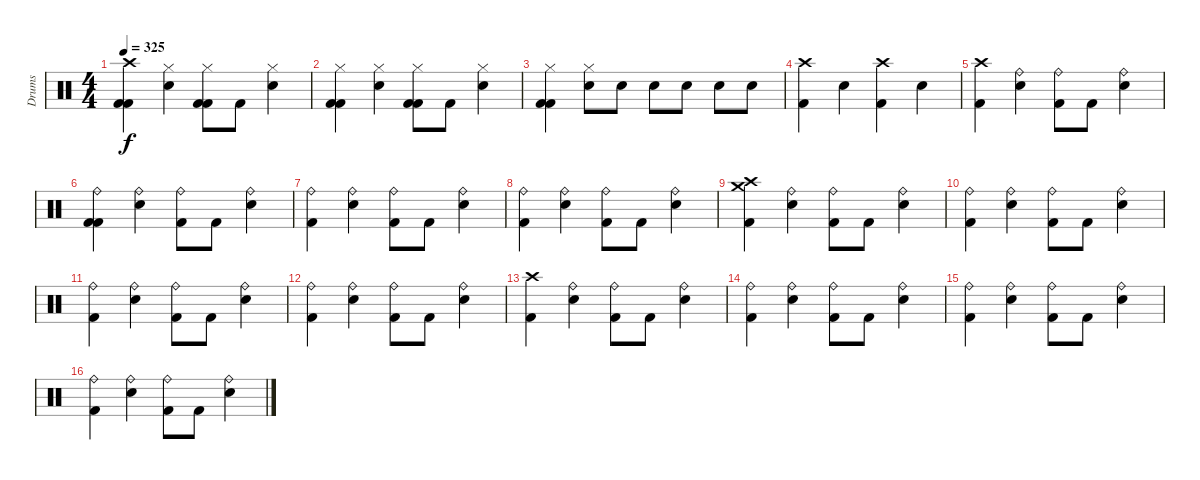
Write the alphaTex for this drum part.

\track ("Drums" "Drums") {instrument percussion}
\staff {score}
\articulation defaults
\ts (4 4)
\tempo 325
\clef neutral
\ks c
("Kick (hit) 2" "Kick (hit) 2" "Crash high (hit)").4{dy f} ("Electric Snare (hit)" "Hi-Hat (closed)").4 ("Kick (hit) 2" "Hi-Hat (closed)" "Kick (hit) 2").8 "Kick (hit) 2".8 ("Electric Snare (hit)" "Hi-Hat (closed)").4 |
("Hi-Hat (closed)" "Kick (hit) 2" "Kick (hit) 2").4 ("Electric Snare (hit)" "Hi-Hat (closed)").4 ("Kick (hit) 2" "Hi-Hat (closed)" "Kick (hit) 2").8 "Kick (hit) 2".8 ("Electric Snare (hit)" "Hi-Hat (closed)").4 |
("Hi-Hat (closed)" "Kick (hit) 2" "Kick (hit) 2").4 ("Hi-Hat (closed)" "Electric Snare (hit)").8 "Electric Snare (hit)".8 "Electric Snare (hit)".8 "Electric Snare (hit)".8 "Electric Snare (hit)".8 "Electric Snare (hit)".8 |
("Crash high (hit)" "Kick (hit) 2").4 "Electric Snare (hit)".4 ("Crash high (hit)" "Kick (hit) 2").4 "Electric Snare (hit)".4 |
("Crash high (hit)" "Kick (hit) 2").4 ("Electric Snare (hit)" "Ride (bell)").4 ("Kick (hit) 2" "Ride (bell)").8 "Kick (hit) 2".8 ("Electric Snare (hit)" "Ride (bell)").4 |
("Kick (hit) 2" "Kick (hit) 2" "Ride (bell)").4 ("Electric Snare (hit)" "Ride (bell)").4 ("Kick (hit) 2" "Ride (bell)").8 "Kick (hit) 2".8 ("Electric Snare (hit)" "Ride (bell)").4 |
("Kick (hit) 2" "Ride (bell)").4 ("Electric Snare (hit)" "Ride (bell)").4 ("Kick (hit) 2" "Ride (bell)").8 "Kick (hit) 2".8 ("Electric Snare (hit)" "Ride (bell)").4 |
("Kick (hit) 2" "Ride (bell)").4 ("Electric Snare (hit)" "Ride (bell)").4 ("Kick (hit) 2" "Ride (bell)").8 "Kick (hit) 2".8 ("Electric Snare (hit)" "Ride (bell)").4 |
("Crash high (hit)" "Crash medium (hit)" "Kick (hit) 2").4 ("Electric Snare (hit)" "Ride (bell)").4 ("Kick (hit) 2" "Ride (bell)").8 "Kick (hit) 2".8 ("Electric Snare (hit)" "Ride (bell)").4 |
("Kick (hit) 2" "Ride (bell)").4 ("Electric Snare (hit)" "Ride (bell)").4 ("Kick (hit) 2" "Ride (bell)").8 "Kick (hit) 2".8 ("Electric Snare (hit)" "Ride (bell)").4 |
("Kick (hit) 2" "Ride (bell)").4 ("Electric Snare (hit)" "Ride (bell)").4 ("Kick (hit) 2" "Ride (bell)").8 "Kick (hit) 2".8 ("Electric Snare (hit)" "Ride (bell)").4 |
("Kick (hit) 2" "Ride (bell)").4 ("Electric Snare (hit)" "Ride (bell)").4 ("Kick (hit) 2" "Ride (bell)").8 "Kick (hit) 2".8 ("Electric Snare (hit)" "Ride (bell)").4 |
("Crash high (hit)" "Kick (hit) 2").4 ("Electric Snare (hit)" "Ride (bell)").4 ("Kick (hit) 2" "Ride (bell)").8 "Kick (hit) 2".8 ("Electric Snare (hit)" "Ride (bell)").4 |
("Kick (hit) 2" "Ride (bell)").4 ("Electric Snare (hit)" "Ride (bell)").4 ("Kick (hit) 2" "Ride (bell)").8 "Kick (hit) 2".8 ("Electric Snare (hit)" "Ride (bell)").4 |
("Kick (hit) 2" "Ride (bell)").4 ("Electric Snare (hit)" "Ride (bell)").4 ("Kick (hit) 2" "Ride (bell)").8 "Kick (hit) 2".8 ("Electric Snare (hit)" "Ride (bell)").4 |
("Kick (hit) 2" "Ride (bell)").4 ("Electric Snare (hit)" "Ride (bell)").4 ("Kick (hit) 2" "Ride (bell)").8 "Kick (hit) 2".8 ("Electric Snare (hit)" "Ride (bell)").4
